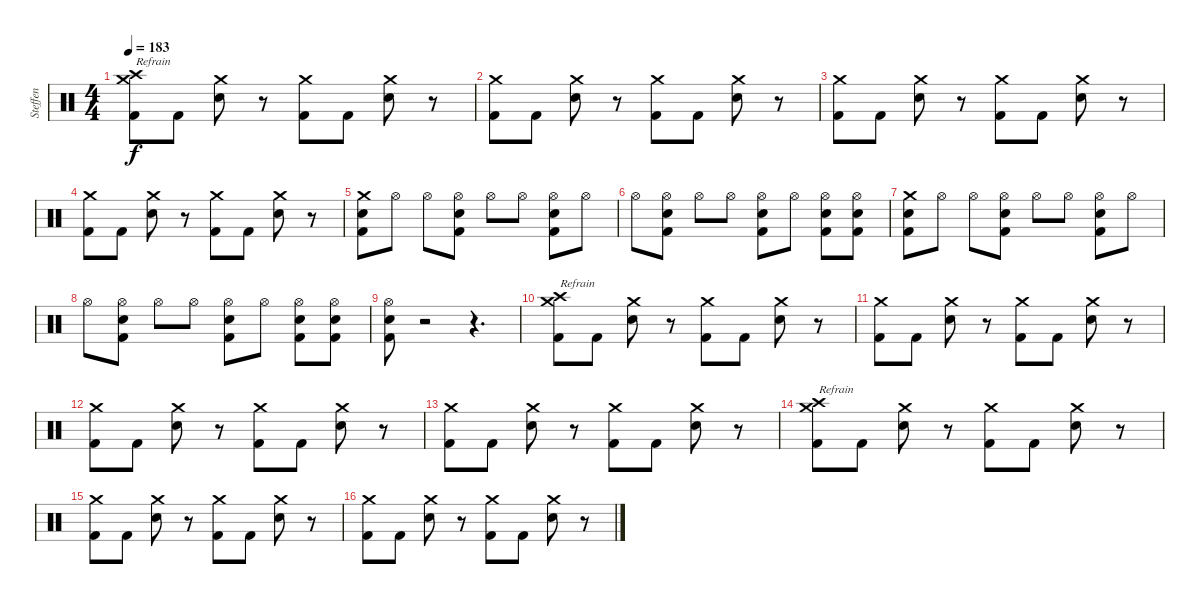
\track ("Steffen" "Steffen") {instrument percussion}
\staff {score}
\articulation defaults
\ts (4 4)
\tempo 183
\clef neutral
\ks c
("Crash high (hit)" "Crash medium (hit)" "Kick (hit) 2").8{txt "Refrain" dy f} "Kick (hit) 2".8 ("Crash medium (hit)" "Snare (hit) 2").8 r.8 ("Crash medium (hit)" "Kick (hit) 2").8 "Kick (hit) 2".8 ("Crash medium (hit)" "Snare (hit) 2").8 r.8 |
("Crash medium (hit)" "Kick (hit) 2").8 "Kick (hit) 2".8 ("Crash medium (hit)" "Snare (hit) 2").8 r.8 ("Crash medium (hit)" "Kick (hit) 2").8 "Kick (hit) 2".8 ("Crash medium (hit)" "Snare (hit) 2").8 r.8 |
("Crash medium (hit)" "Kick (hit) 2").8 "Kick (hit) 2".8 ("Crash medium (hit)" "Snare (hit) 2").8 r.8 ("Crash medium (hit)" "Kick (hit) 2").8 "Kick (hit) 2".8 ("Crash medium (hit)" "Snare (hit) 2").8 r.8 |
("Crash medium (hit)" "Kick (hit) 2").8 "Kick (hit) 2".8 ("Crash medium (hit)" "Snare (hit) 2").8 r.8 ("Crash medium (hit)" "Kick (hit) 2").8 "Kick (hit) 2".8 ("Crash medium (hit)" "Snare (hit) 2").8 r.8 |
("Crash medium (hit)" "Snare (hit) 2" "Kick (hit) 2").8 "Hi-Hat (open)".8 "Hi-Hat (open)".8 ("Hi-Hat (open)" "Snare (hit) 2" "Kick (hit) 2").8 "Hi-Hat (open)".8 "Hi-Hat (open)".8 ("Hi-Hat (open)" "Snare (hit) 2" "Kick (hit) 2").8 "Hi-Hat (open)".8 |
"Hi-Hat (open)".8 ("Hi-Hat (open)" "Snare (hit) 2" "Kick (hit) 2").8 "Hi-Hat (open)".8 "Hi-Hat (open)".8 ("Hi-Hat (open)" "Snare (hit) 2" "Kick (hit) 2").8 "Hi-Hat (open)".8 ("Hi-Hat (open)" "Snare (hit) 2" "Kick (hit) 2").8 ("Hi-Hat (open)" "Snare (hit) 2" "Kick (hit) 2").8 |
("Crash medium (hit)" "Snare (hit) 2" "Kick (hit) 2").8 "Hi-Hat (open)".8 "Hi-Hat (open)".8 ("Hi-Hat (open)" "Snare (hit) 2" "Kick (hit) 2").8 "Hi-Hat (open)".8 "Hi-Hat (open)".8 ("Hi-Hat (open)" "Snare (hit) 2" "Kick (hit) 2").8 "Hi-Hat (open)".8 |
"Hi-Hat (open)".8 ("Hi-Hat (open)" "Snare (hit) 2" "Kick (hit) 2").8 "Hi-Hat (open)".8 "Hi-Hat (open)".8 ("Hi-Hat (open)" "Snare (hit) 2" "Kick (hit) 2").8 "Hi-Hat (open)".8 ("Hi-Hat (open)" "Snare (hit) 2" "Kick (hit) 2").8 ("Hi-Hat (open)" "Snare (hit) 2" "Kick (hit) 2").8 |
("Hi-Hat (open)" "Snare (hit) 2" "Kick (hit) 2").8 r.2 r.4{d} |
("Crash high (hit)" "Crash medium (hit)" "Kick (hit) 2").8{txt "Refrain"} "Kick (hit) 2".8 ("Crash medium (hit)" "Snare (hit) 2").8 r.8 ("Crash medium (hit)" "Kick (hit) 2").8 "Kick (hit) 2".8 ("Crash medium (hit)" "Snare (hit) 2").8 r.8 |
("Crash medium (hit)" "Kick (hit) 2").8 "Kick (hit) 2".8 ("Crash medium (hit)" "Snare (hit) 2").8 r.8 ("Crash medium (hit)" "Kick (hit) 2").8 "Kick (hit) 2".8 ("Crash medium (hit)" "Snare (hit) 2").8 r.8 |
("Crash medium (hit)" "Kick (hit) 2").8 "Kick (hit) 2".8 ("Crash medium (hit)" "Snare (hit) 2").8 r.8 ("Crash medium (hit)" "Kick (hit) 2").8 "Kick (hit) 2".8 ("Crash medium (hit)" "Snare (hit) 2").8 r.8 |
("Crash medium (hit)" "Kick (hit) 2").8 "Kick (hit) 2".8 ("Crash medium (hit)" "Snare (hit) 2").8 r.8 ("Crash medium (hit)" "Kick (hit) 2").8 "Kick (hit) 2".8 ("Crash medium (hit)" "Snare (hit) 2").8 r.8 |
("Crash high (hit)" "Crash medium (hit)" "Kick (hit) 2").8{txt "Refrain"} "Kick (hit) 2".8 ("Crash medium (hit)" "Snare (hit) 2").8 r.8 ("Crash medium (hit)" "Kick (hit) 2").8 "Kick (hit) 2".8 ("Crash medium (hit)" "Snare (hit) 2").8 r.8 |
("Crash medium (hit)" "Kick (hit) 2").8 "Kick (hit) 2".8 ("Crash medium (hit)" "Snare (hit) 2").8 r.8 ("Crash medium (hit)" "Kick (hit) 2").8 "Kick (hit) 2".8 ("Crash medium (hit)" "Snare (hit) 2").8 r.8 |
("Crash medium (hit)" "Kick (hit) 2").8 "Kick (hit) 2".8 ("Crash medium (hit)" "Snare (hit) 2").8 r.8 ("Crash medium (hit)" "Kick (hit) 2").8 "Kick (hit) 2".8 ("Crash medium (hit)" "Snare (hit) 2").8 r.8
